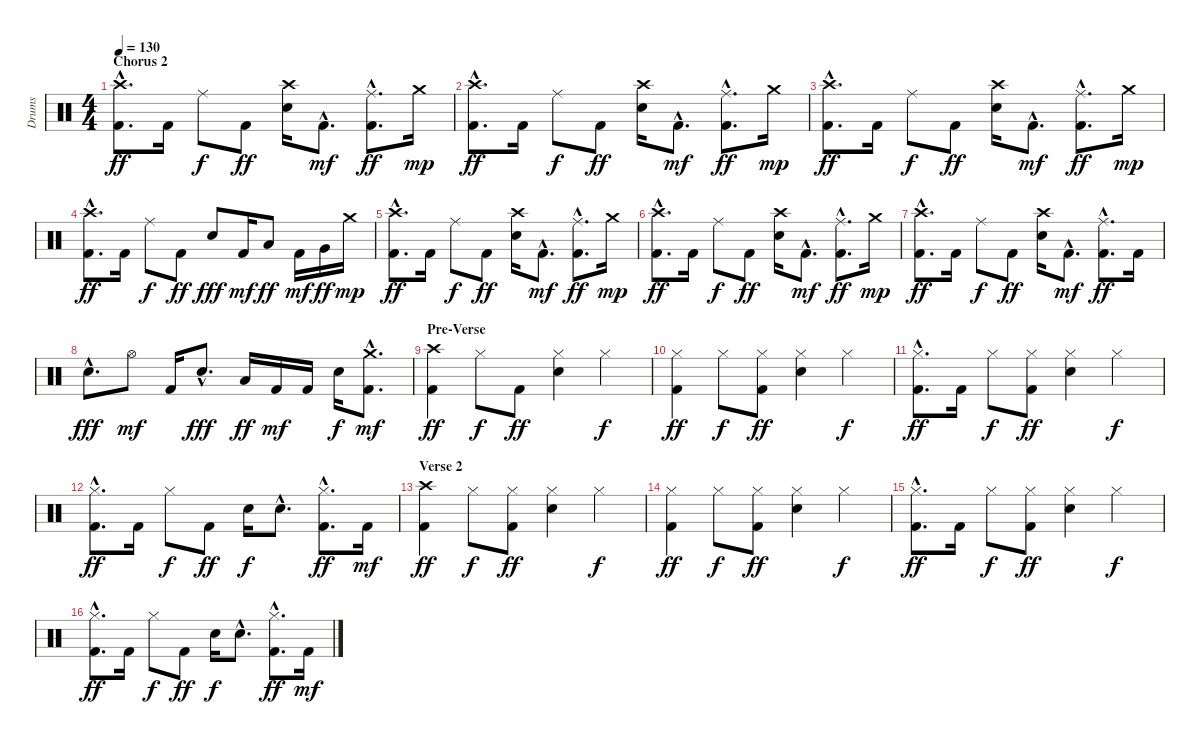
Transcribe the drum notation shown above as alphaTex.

\track ("Drums" "Drums") {instrument percussion}
\staff {score}
\articulation defaults
\ts (4 4)
\section ("" "Chorus 2")
\tempo 130
\clef neutral
\ks c
("Crash high (hit)"{hac} "Kick (hit) 2"{hac}).8{d dy ff} "Kick (hit) 2".16 "Ride (middle)".8{dy f} "Kick (hit) 2".8{dy ff} ("Crash high (hit)" "Electric Snare (hit)").16 "Kick (hit) 2"{hac}.8{d dy mf} ("Ride (middle)"{hac} "Kick (hit) 2"{hac}).8{d dy ff} "Crash medium (hit)".16{dy mp} |
("Crash high (hit)"{hac} "Kick (hit) 2"{hac}).8{d dy ff} "Kick (hit) 2".16 "Ride (middle)".8{dy f} "Kick (hit) 2".8{dy ff} ("Crash high (hit)" "Electric Snare (hit)").16 "Kick (hit) 2"{hac}.8{d dy mf} ("Ride (middle)"{hac} "Kick (hit) 2"{hac}).8{d dy ff} "Crash medium (hit)".16{dy mp} |
("Crash high (hit)"{hac} "Kick (hit) 2"{hac}).8{d dy ff} "Kick (hit) 2".16 "Ride (middle)".8{dy f} "Kick (hit) 2".8{dy ff} ("Crash high (hit)" "Electric Snare (hit)").16 "Kick (hit) 2"{hac}.8{d dy mf} ("Ride (middle)"{hac} "Kick (hit) 2"{hac}).8{d dy ff} "Crash medium (hit)".16{dy mp} |
("Crash high (hit)"{hac} "Kick (hit) 2"{hac}).8{d dy ff} "Kick (hit) 2".16 "Ride (middle)".8{dy f} "Kick (hit) 2".8{dy ff} "Electric Snare (hit)".8{dy fff} "Kick (hit) 2".16{dy mf} "Low Tom (hit)".8{dy ff} "Kick (hit) 2".16{dy mf} "Very Low Tom (hit)".16{dy ff} "Crash medium (hit)".16{dy mp} |
("Crash high (hit)"{hac} "Kick (hit) 2"{hac}).8{d dy ff} "Kick (hit) 2".16 "Ride (middle)".8{dy f} "Kick (hit) 2".8{dy ff} ("Crash high (hit)" "Electric Snare (hit)").16 "Kick (hit) 2"{hac}.8{d dy mf} ("Ride (middle)"{hac} "Kick (hit) 2"{hac}).8{d dy ff} "Crash medium (hit)".16{dy mp} |
("Crash high (hit)"{hac} "Kick (hit) 2"{hac}).8{d dy ff} "Kick (hit) 2".16 "Ride (middle)".8{dy f} "Kick (hit) 2".8{dy ff} ("Crash high (hit)" "Electric Snare (hit)").16 "Kick (hit) 2"{hac}.8{d dy mf} ("Ride (middle)"{hac} "Kick (hit) 2"{hac}).8{d dy ff} "Crash medium (hit)".16{dy mp} |
("Crash high (hit)"{hac} "Kick (hit) 2"{hac}).8{d dy ff} "Kick (hit) 2".16 "Ride (middle)".8{dy f} "Kick (hit) 2".8{dy ff} ("Crash high (hit)" "Electric Snare (hit)").16 "Kick (hit) 2"{hac}.8{d dy mf} ("Ride (middle)"{hac} "Kick (hit) 2"{hac}).8{d dy ff} "Kick (hit) 2".16 |
"Electric Snare (hit)"{hac}.8{d dy fff} "Hi-Hat (open)".8{dy mf} "Kick (hit) 2".16 "Electric Snare (hit)"{hac}.8{d dy fff} "Low Tom (hit)".16{dy ff} "Kick (hit) 2".16{dy mf} "Kick (hit) 2".16 "Electric Snare (hit)".16{dy f} ("Crash medium (hit)"{hac} "Kick (hit) 2"{hac}).8{d dy mf} |
\section ("" "Pre-Verse")
("Crash high (hit)" "Kick (hit) 2").4{dy ff} "Hi-Hat (closed)".8{dy f} "Kick (hit) 2".8{dy ff} ("Hi-Hat (closed)" "Electric Snare (hit)").4 "Hi-Hat (closed)".4{dy f} |
("Hi-Hat (closed)" "Kick (hit) 2").4{dy ff} "Hi-Hat (closed)".8{dy f} ("Hi-Hat (closed)" "Kick (hit) 2").8{dy ff} ("Hi-Hat (closed)" "Electric Snare (hit)").4 "Hi-Hat (closed)".4{dy f} |
("Hi-Hat (closed)"{hac} "Kick (hit) 2"{hac}).8{d dy ff} "Kick (hit) 2".16 "Hi-Hat (closed)".8{dy f} ("Hi-Hat (closed)" "Kick (hit) 2").8{dy ff} ("Hi-Hat (closed)" "Electric Snare (hit)").4 "Hi-Hat (closed)".4{dy f} |
("Hi-Hat (closed)"{hac} "Kick (hit) 2"{hac}).8{d dy ff} "Kick (hit) 2".16 "Hi-Hat (closed)".8{dy f} "Kick (hit) 2".8{dy ff} "Electric Snare (hit)".16{dy f} "Electric Snare (hit)"{hac}.8{d} ("Hi-Hat (closed)"{hac} "Kick (hit) 2"{hac}).8{d dy ff} "Kick (hit) 2".16{dy mf} |
\section ("" "Verse 2")
("Crash high (hit)" "Kick (hit) 2").4{dy ff} "Hi-Hat (closed)".8{dy f} ("Hi-Hat (closed)" "Kick (hit) 2").8{dy ff} ("Hi-Hat (closed)" "Electric Snare (hit)").4 "Hi-Hat (closed)".4{dy f} |
("Hi-Hat (closed)" "Kick (hit) 2").4{dy ff} "Hi-Hat (closed)".8{dy f} ("Hi-Hat (closed)" "Kick (hit) 2").8{dy ff} ("Hi-Hat (closed)" "Electric Snare (hit)").4 "Hi-Hat (closed)".4{dy f} |
("Hi-Hat (closed)"{hac} "Kick (hit) 2"{hac}).8{d dy ff} "Kick (hit) 2".16 "Hi-Hat (closed)".8{dy f} ("Hi-Hat (closed)" "Kick (hit) 2").8{dy ff} ("Hi-Hat (closed)" "Electric Snare (hit)").4 "Hi-Hat (closed)".4{dy f} |
("Hi-Hat (closed)"{hac} "Kick (hit) 2"{hac}).8{d dy ff} "Kick (hit) 2".16 "Hi-Hat (closed)".8{dy f} "Kick (hit) 2".8{dy ff} "Electric Snare (hit)".16{dy f} "Electric Snare (hit)"{hac}.8{d} ("Hi-Hat (closed)"{hac} "Kick (hit) 2"{hac}).8{d dy ff} "Kick (hit) 2".16{dy mf}
